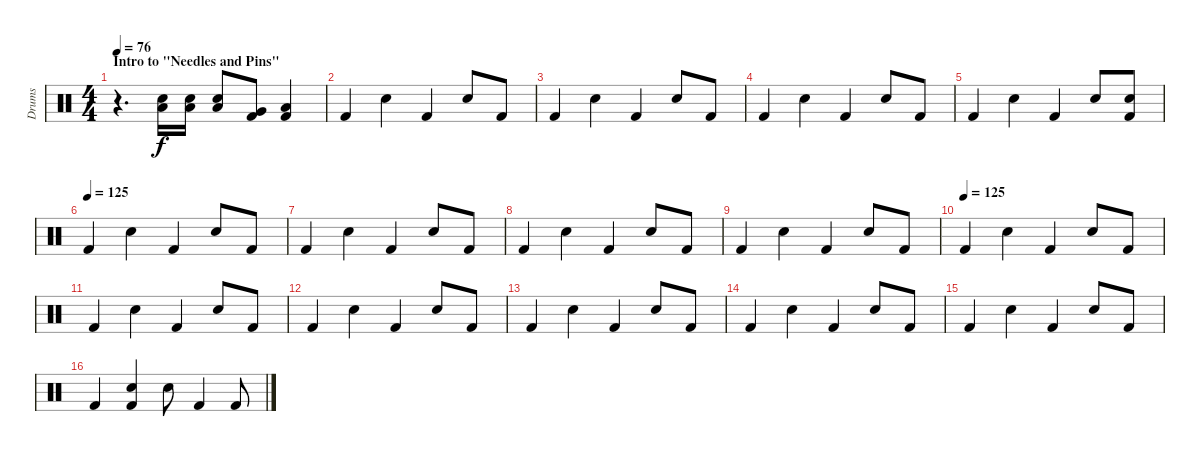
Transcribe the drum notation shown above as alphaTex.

\track ("Drums" "Drums") {instrument percussion}
\staff {score}
\articulation defaults
\ts (4 4)
\section ("" "Intro to \"Needles and Pins\"")
\tempo 76
\tempo 125
\tempo 76
\clef neutral
\ks c
r.4{d dy f volume 6} ("Low Tom (hit)" "Snare (hit) 2").16 ("Low Tom (hit)" "Snare (hit) 2").16 ("Low Tom (hit)" "Snare (hit) 2").8 ("Very Low Tom (hit)" "Kick (hit) 2").8 ("Low Floor Tom (hit)" "Kick (hit) 2").4 |
"Kick (hit) 2".4 "Snare (hit) 2".4 "Kick (hit) 2".4 "Snare (hit) 2".8 "Kick (hit) 2".8 |
"Kick (hit) 2".4 "Snare (hit) 2".4 "Kick (hit) 2".4 "Snare (hit) 2".8 "Kick (hit) 2".8 |
"Kick (hit) 2".4 "Snare (hit) 2".4 "Kick (hit) 2".4 "Snare (hit) 2".8 "Kick (hit) 2".8 |
"Kick (hit) 2".4 "Snare (hit) 2".4 "Kick (hit) 2".4 "Snare (hit) 2".8 ("Snare (hit) 2" "Kick (hit) 2").8 |
\tempo (125)
"Kick (hit) 2".4 "Snare (hit) 2".4 "Kick (hit) 2".4 "Snare (hit) 2".8 "Kick (hit) 2".8 |
"Kick (hit) 2".4 "Snare (hit) 2".4 "Kick (hit) 2".4 "Snare (hit) 2".8 "Kick (hit) 2".8 |
"Kick (hit) 2".4 "Snare (hit) 2".4 "Kick (hit) 2".4 "Snare (hit) 2".8 "Kick (hit) 2".8 |
"Kick (hit) 2".4 "Snare (hit) 2".4 "Kick (hit) 2".4 "Snare (hit) 2".8 "Kick (hit) 2".8 |
\tempo (125)
"Kick (hit) 2".4 "Snare (hit) 2".4 "Kick (hit) 2".4 "Snare (hit) 2".8 "Kick (hit) 2".8 |
"Kick (hit) 2".4 "Snare (hit) 2".4 "Kick (hit) 2".4 "Snare (hit) 2".8 "Kick (hit) 2".8 |
"Kick (hit) 2".4 "Snare (hit) 2".4 "Kick (hit) 2".4 "Snare (hit) 2".8 "Kick (hit) 2".8 |
"Kick (hit) 2".4 "Snare (hit) 2".4 "Kick (hit) 2".4 "Snare (hit) 2".8 "Kick (hit) 2".8 |
"Kick (hit) 2".4 "Snare (hit) 2".4 "Kick (hit) 2".4 "Snare (hit) 2".8 "Kick (hit) 2".8 |
"Kick (hit) 2".4 "Snare (hit) 2".4 "Kick (hit) 2".4 "Snare (hit) 2".8 "Kick (hit) 2".8 |
"Kick (hit) 2".4 ("Snare (hit) 2" "Kick (hit) 2").4 "Snare (hit) 2".8 "Kick (hit) 2".4 "Kick (hit) 2".8
